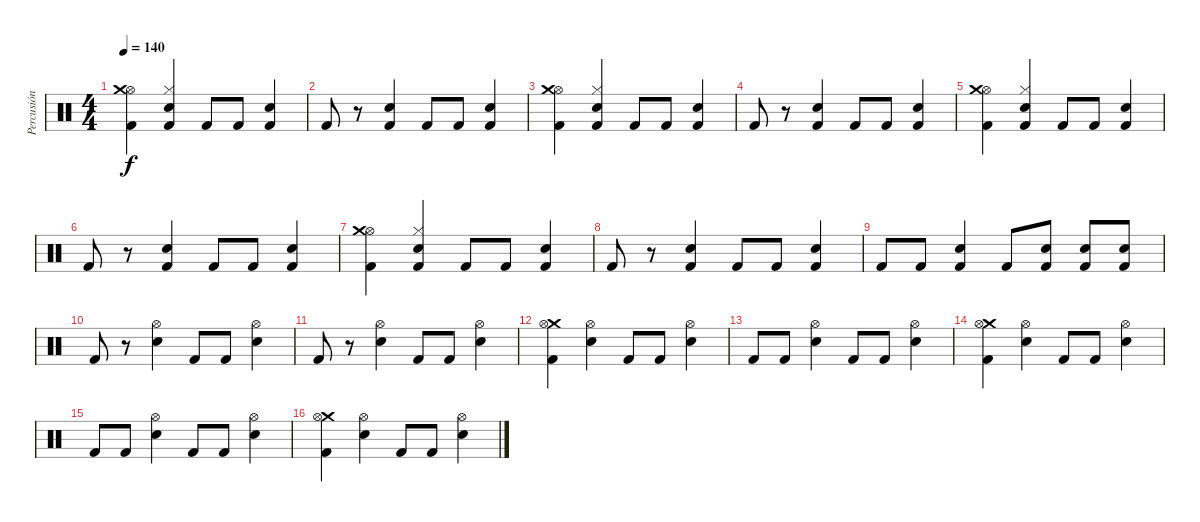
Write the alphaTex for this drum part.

\track ("Percusión" "Percusión") {instrument percussion}
\staff {score}
\articulation defaults
\ts (4 4)
\tempo 140
\clef neutral
\ks c
("Hi-Hat (open)" "Crash medium (hit)" "Kick (hit) 2").4{dy f} ("Hi-Hat (closed)" "Snare (hit) 2" "Kick (hit) 2").4 "Kick (hit) 2".8 "Kick (hit) 2".8 ("Snare (hit) 2" "Kick (hit) 2").4 |
"Kick (hit) 2".8 r.8 ("Snare (hit) 2" "Kick (hit) 2").4 "Kick (hit) 2".8 "Kick (hit) 2".8 ("Snare (hit) 2" "Kick (hit) 2").4 |
("Hi-Hat (open)" "Crash medium (hit)" "Kick (hit) 2").4 ("Hi-Hat (closed)" "Snare (hit) 2" "Kick (hit) 2").4 "Kick (hit) 2".8 "Kick (hit) 2".8 ("Snare (hit) 2" "Kick (hit) 2").4 |
"Kick (hit) 2".8 r.8 ("Snare (hit) 2" "Kick (hit) 2").4 "Kick (hit) 2".8 "Kick (hit) 2".8 ("Snare (hit) 2" "Kick (hit) 2").4 |
("Hi-Hat (open)" "Crash medium (hit)" "Kick (hit) 2").4 ("Hi-Hat (closed)" "Snare (hit) 2" "Kick (hit) 2").4 "Kick (hit) 2".8 "Kick (hit) 2".8 ("Snare (hit) 2" "Kick (hit) 2").4 |
"Kick (hit) 2".8 r.8 ("Snare (hit) 2" "Kick (hit) 2").4 "Kick (hit) 2".8 "Kick (hit) 2".8 ("Snare (hit) 2" "Kick (hit) 2").4 |
("Hi-Hat (open)" "Crash medium (hit)" "Kick (hit) 2").4 ("Hi-Hat (closed)" "Snare (hit) 2" "Kick (hit) 2").4 "Kick (hit) 2".8 "Kick (hit) 2".8 ("Snare (hit) 2" "Kick (hit) 2").4 |
"Kick (hit) 2".8 r.8 ("Snare (hit) 2" "Kick (hit) 2").4 "Kick (hit) 2".8 "Kick (hit) 2".8 ("Snare (hit) 2" "Kick (hit) 2").4 |
"Kick (hit) 2".8 "Kick (hit) 2".8 ("Snare (hit) 2" "Kick (hit) 2").4 "Kick (hit) 2".8 ("Snare (hit) 2" "Kick (hit) 2").8 ("Snare (hit) 2" "Kick (hit) 2").8 ("Snare (hit) 2" "Kick (hit) 2").8 |
"Kick (hit) 2".8 r.8 ("Hi-Hat (open)" "Snare (hit) 2").4 "Kick (hit) 2".8 "Kick (hit) 2".8 ("Hi-Hat (open)" "Snare (hit) 2").4 |
"Kick (hit) 2".8 r.8 ("Hi-Hat (open)" "Snare (hit) 2").4 "Kick (hit) 2".8 "Kick (hit) 2".8 ("Hi-Hat (open)" "Snare (hit) 2").4 |
("Crash medium (hit)" "Hi-Hat (open)" "Kick (hit) 2").4 ("Hi-Hat (open)" "Snare (hit) 2").4 "Kick (hit) 2".8 "Kick (hit) 2".8 ("Hi-Hat (open)" "Snare (hit) 2").4 |
"Kick (hit) 2".8 "Kick (hit) 2".8 ("Hi-Hat (open)" "Snare (hit) 2").4 "Kick (hit) 2".8 "Kick (hit) 2".8 ("Hi-Hat (open)" "Snare (hit) 2").4 |
("Crash medium (hit)" "Hi-Hat (open)" "Kick (hit) 2").4 ("Hi-Hat (open)" "Snare (hit) 2").4 "Kick (hit) 2".8 "Kick (hit) 2".8 ("Hi-Hat (open)" "Snare (hit) 2").4 |
"Kick (hit) 2".8 "Kick (hit) 2".8 ("Hi-Hat (open)" "Snare (hit) 2").4 "Kick (hit) 2".8 "Kick (hit) 2".8 ("Hi-Hat (open)" "Snare (hit) 2").4 |
("Crash medium (hit)" "Hi-Hat (open)" "Kick (hit) 2").4 ("Hi-Hat (open)" "Snare (hit) 2").4 "Kick (hit) 2".8 "Kick (hit) 2".8 ("Hi-Hat (open)" "Snare (hit) 2").4
